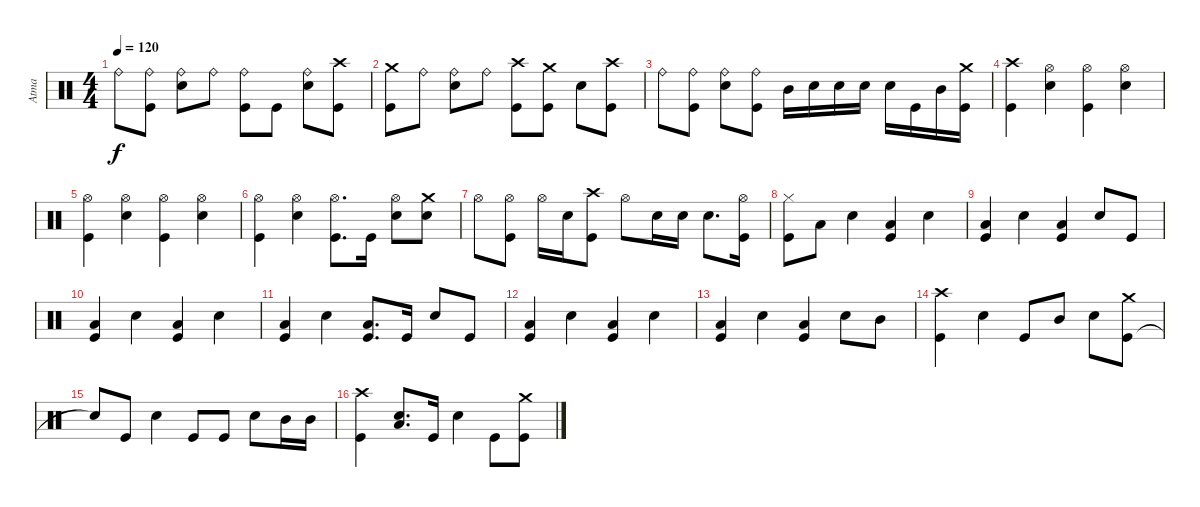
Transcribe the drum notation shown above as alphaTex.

\track ("Atma" "Atma") {instrument percussion}
\staff {score}
\articulation defaults
\ts (4 4)
\tempo 120
\clef neutral
\ks c "Ride (bell)".8{dy f}
("Kick (hit)" "Ride (bell)").8 ("Snare (hit) 2" "Ride (bell)").8 "Ride (bell)".8 ("Kick (hit)" "Ride (bell)").8 "Kick (hit)".8 ("Snare (hit) 2" "Ride (bell)").8 ("Kick (hit)" "Crash high (hit)").8 |
("Kick (hit)" "Crash medium (hit)").8 "Ride (bell)".8 ("Snare (hit) 2" "Ride (bell)").8 "Ride (bell)".8 ("Kick (hit)" "Crash high (hit)").8 ("Kick (hit)" "Crash medium (hit)").8 "Snare (hit) 2".8 ("Kick (hit)" "Crash high (hit)").8 |
"Ride (bell)".8 ("Kick (hit)" "Ride (bell)").8 ("Snare (hit) 2" "Ride (bell)").8 ("Kick (hit)" "Ride (bell)").8 "Mid Tom (hit)".16 "Snare (hit) 2".16 "Snare (hit) 2".16 "Snare (hit) 2".16 "Snare (hit) 2".16 "Kick (hit)".16 "Mid Tom (hit)".16 ("Kick (hit)" "Crash medium (hit)").16 |
("Kick (hit)" "Crash high (hit)").4 ("Snare (hit) 2" "Hi-Hat (open)").4 ("Kick (hit)" "Hi-Hat (open)").4 ("Snare (hit) 2" "Hi-Hat (open)").4 |
("Kick (hit)" "Hi-Hat (open)").4 ("Snare (hit) 2" "Hi-Hat (open)").4 ("Kick (hit)" "Hi-Hat (open)").4 ("Snare (hit) 2" "Hi-Hat (open)").4 |
("Kick (hit)" "Hi-Hat (open)").4 ("Snare (hit) 2" "Hi-Hat (open)").4 ("Kick (hit)" "Hi-Hat (open)").8{d} "Kick (hit)".16 ("Snare (hit) 2" "Hi-Hat (open)").8 ("Snare (hit) 2" "Crash medium (hit)").8 |
"Hi-Hat (open)".8 ("Kick (hit)" "Hi-Hat (open)").8 "Hi-Hat (open)".16 "Snare (hit) 2".16 ("Kick (hit)" "Crash high (hit)").8 "Hi-Hat (open)".8 "Snare (hit) 2".16 "Snare (hit) 2".16 "Snare (hit) 2".8{d} ("Kick (hit)" "Hi-Hat (open)").16 |
("Kick (hit)" "Hi-Hat (closed)").8 "Low Tom (hit)".8 "Snare (hit) 2".4 ("Kick (hit)" "Low Floor Tom (hit)").4 "Snare (hit) 2".4 |
("Kick (hit)" "Low Floor Tom (hit)").4 "Snare (hit) 2".4 ("Kick (hit)" "Low Floor Tom (hit)").4 "Snare (hit) 2".8 "Kick (hit)".8 |
("Kick (hit)" "Low Floor Tom (hit)").4 "Snare (hit) 2".4 ("Kick (hit)" "Low Floor Tom (hit)").4 "Snare (hit) 2".4 |
("Kick (hit)" "Low Floor Tom (hit)").4 "Snare (hit) 2".4 ("Kick (hit)" "Low Floor Tom (hit)").8{d} "Kick (hit)".16 "Snare (hit) 2".8 "Kick (hit)".8 |
("Kick (hit)" "Low Floor Tom (hit)").4 "Snare (hit) 2".4 ("Kick (hit)" "Low Floor Tom (hit)").4 "Snare (hit) 2".4 |
("Kick (hit)" "Low Floor Tom (hit)").4 "Snare (hit) 2".4 ("Kick (hit)" "Low Floor Tom (hit)").4 "Snare (hit) 2".8 "Mid Tom (hit)".8 |
("Kick (hit)" "Crash high (hit)").4 "Snare (hit) 2".4 "Kick (hit)".8 "Mid Tom (hit)".8 "Snare (hit) 2".8 ("Kick (hit)" "Crash medium (hit)").8 |
"Snare (hit)"{t}.8 "Kick (hit)".8 "Snare (hit) 2".4 "Kick (hit)".8 "Kick (hit)".8 "Snare (hit) 2".8 "Mid Tom (hit)".16 "Mid Tom (hit)".16 |
("Kick (hit)" "Crash high (hit)").4 ("Snare (hit) 2" "Low Tom (hit)").8{d} "Kick (hit)".16 "Snare (hit) 2".4 "Kick (hit)".8 ("Kick (hit)" "Crash medium (hit)").8
